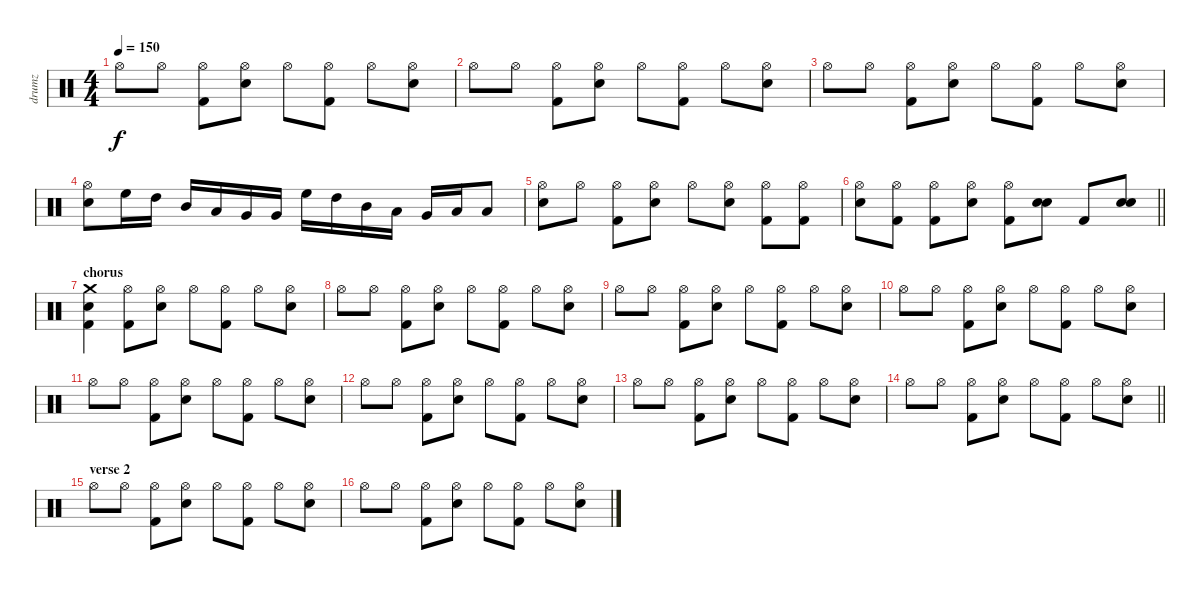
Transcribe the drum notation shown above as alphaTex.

\track ("drumz" "drumz") {instrument percussion}
\staff {score}
\articulation defaults
\ts (4 4)
\tempo 150
\clef neutral
\ks c "Hi-Hat (open)".8{dy f} "Hi-Hat (open)".8
("Hi-Hat (open)" "Kick (hit) 2").8 ("Hi-Hat (open)" "Electric Snare (hit)").8 "Hi-Hat (open)".8 ("Hi-Hat (open)" "Kick (hit) 2").8 "Hi-Hat (open)".8 ("Hi-Hat (open)" "Electric Snare (hit)").8 |
"Hi-Hat (open)".8 "Hi-Hat (open)".8 ("Hi-Hat (open)" "Kick (hit) 2").8 ("Hi-Hat (open)" "Electric Snare (hit)").8 "Hi-Hat (open)".8 ("Hi-Hat (open)" "Kick (hit) 2").8 "Hi-Hat (open)".8 ("Hi-Hat (open)" "Electric Snare (hit)").8 |
"Hi-Hat (open)".8 "Hi-Hat (open)".8 ("Hi-Hat (open)" "Kick (hit) 2").8 ("Hi-Hat (open)" "Electric Snare (hit)").8 "Hi-Hat (open)".8 ("Hi-Hat (open)" "Kick (hit) 2").8 "Hi-Hat (open)".8 ("Hi-Hat (open)" "Electric Snare (hit)").8 |
("Hi-Hat (open)" "Electric Snare (hit)").8 "High Floor Tom (hit)".16 "High Tom (hit)".16 "Mid Tom (hit)".16 "Low Tom (hit)".16 "Very Low Tom (hit)".16 "Very Low Tom (hit)".16 "High Floor Tom (hit)".16 "High Tom (hit)".16 "Mid Tom (hit)".16 "Low Tom (hit)".16 "Very Low Tom (hit)".16 "Low Floor Tom (hit)".16 "Low Floor Tom (hit)".8 |
("Hi-Hat (open)" "Electric Snare (hit)").8 "Hi-Hat (open)".8 ("Hi-Hat (open)" "Kick (hit) 2").8 ("Hi-Hat (open)" "Electric Snare (hit)").8 "Hi-Hat (open)".8 ("Hi-Hat (open)" "Electric Snare (hit)").8 ("Hi-Hat (open)" "Kick (hit) 2").8 ("Hi-Hat (open)" "Kick (hit) 2").8 |
\barLineRight lightlight
("Hi-Hat (open)" "Electric Snare (hit)").8 ("Hi-Hat (open)" "Kick (hit) 2").8 ("Hi-Hat (open)" "Kick (hit) 2").8 ("Hi-Hat (open)" "Electric Snare (hit)").8 ("Hi-Hat (open)" "Kick (hit) 2").8 ("Electric Snare (hit)" "Electric Snare (hit)").8 "Kick (hit) 2".8 ("Electric Snare (hit)" "Electric Snare (hit)").8 |
\section ("" "chorus")
("Crash medium (hit)" "Electric Snare (hit)" "Kick (hit) 2").4 ("Hi-Hat (open)" "Kick (hit) 2").8 ("Hi-Hat (open)" "Electric Snare (hit)").8 "Hi-Hat (open)".8 ("Hi-Hat (open)" "Kick (hit) 2").8 "Hi-Hat (open)".8 ("Hi-Hat (open)" "Electric Snare (hit)").8 |
"Hi-Hat (open)".8 "Hi-Hat (open)".8 ("Hi-Hat (open)" "Kick (hit) 2").8 ("Hi-Hat (open)" "Electric Snare (hit)").8 "Hi-Hat (open)".8 ("Hi-Hat (open)" "Kick (hit) 2").8 "Hi-Hat (open)".8 ("Hi-Hat (open)" "Electric Snare (hit)").8 |
"Hi-Hat (open)".8 "Hi-Hat (open)".8 ("Hi-Hat (open)" "Kick (hit) 2").8 ("Hi-Hat (open)" "Electric Snare (hit)").8 "Hi-Hat (open)".8 ("Hi-Hat (open)" "Kick (hit) 2").8 "Hi-Hat (open)".8 ("Hi-Hat (open)" "Electric Snare (hit)").8 |
"Hi-Hat (open)".8 "Hi-Hat (open)".8 ("Hi-Hat (open)" "Kick (hit) 2").8 ("Hi-Hat (open)" "Electric Snare (hit)").8 "Hi-Hat (open)".8 ("Hi-Hat (open)" "Kick (hit) 2").8 "Hi-Hat (open)".8 ("Hi-Hat (open)" "Electric Snare (hit)").8 |
"Hi-Hat (open)".8 "Hi-Hat (open)".8 ("Hi-Hat (open)" "Kick (hit) 2").8 ("Hi-Hat (open)" "Electric Snare (hit)").8 "Hi-Hat (open)".8 ("Hi-Hat (open)" "Kick (hit) 2").8 "Hi-Hat (open)".8 ("Hi-Hat (open)" "Electric Snare (hit)").8 |
"Hi-Hat (open)".8 "Hi-Hat (open)".8 ("Hi-Hat (open)" "Kick (hit) 2").8 ("Hi-Hat (open)" "Electric Snare (hit)").8 "Hi-Hat (open)".8 ("Hi-Hat (open)" "Kick (hit) 2").8 "Hi-Hat (open)".8 ("Hi-Hat (open)" "Electric Snare (hit)").8 |
"Hi-Hat (open)".8 "Hi-Hat (open)".8 ("Hi-Hat (open)" "Kick (hit) 2").8 ("Hi-Hat (open)" "Electric Snare (hit)").8 "Hi-Hat (open)".8 ("Hi-Hat (open)" "Kick (hit) 2").8 "Hi-Hat (open)".8 ("Hi-Hat (open)" "Electric Snare (hit)").8 |
\barLineRight lightlight "Hi-Hat (open)".8 "Hi-Hat (open)".8
("Hi-Hat (open)" "Kick (hit) 2").8 ("Hi-Hat (open)" "Electric Snare (hit)").8 "Hi-Hat (open)".8 ("Hi-Hat (open)" "Kick (hit) 2").8 "Hi-Hat (open)".8 ("Hi-Hat (open)" "Electric Snare (hit)").8 |
\section ("" "verse 2")
"Hi-Hat (open)".8 "Hi-Hat (open)".8 ("Hi-Hat (open)" "Kick (hit) 2").8 ("Hi-Hat (open)" "Electric Snare (hit)").8 "Hi-Hat (open)".8 ("Hi-Hat (open)" "Kick (hit) 2").8 "Hi-Hat (open)".8 ("Hi-Hat (open)" "Electric Snare (hit)").8 |
"Hi-Hat (open)".8 "Hi-Hat (open)".8 ("Hi-Hat (open)" "Kick (hit) 2").8 ("Hi-Hat (open)" "Electric Snare (hit)").8 "Hi-Hat (open)".8 ("Hi-Hat (open)" "Kick (hit) 2").8 "Hi-Hat (open)".8 ("Hi-Hat (open)" "Electric Snare (hit)").8
